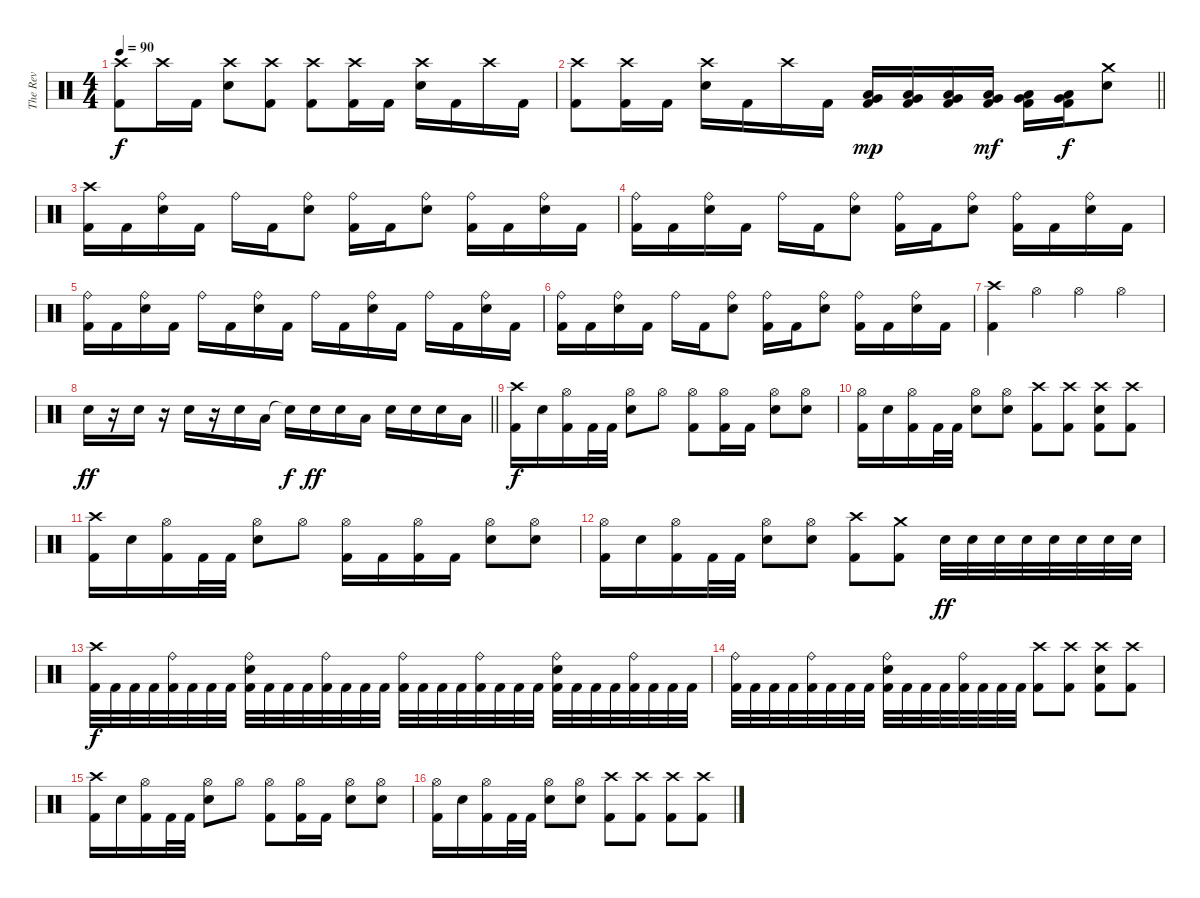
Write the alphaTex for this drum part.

\track ("The Rev" "The Rev") {instrument percussion}
\staff {score}
\articulation defaults
\ts (4 4)
\tempo 90
\clef neutral
\ks c
("Crash high (hit)" "Kick (hit) 2").8{dy f} "Crash high (hit)".16 "Kick (hit) 2".16 ("Crash high (hit)" "Electric Snare (hit)").8 ("Crash high (hit)" "Kick (hit) 2").8 ("Crash high (hit)" "Kick (hit) 2").8 ("Crash high (hit)" "Kick (hit) 2").16 "Kick (hit) 2".16 ("Crash high (hit)" "Electric Snare (hit)").16 "Kick (hit) 2".16 "Crash high (hit)".16 "Kick (hit) 2".16 |
\barLineRight lightlight
("Crash high (hit)" "Kick (hit) 2").8 ("Crash high (hit)" "Kick (hit) 2").16 "Kick (hit) 2".16 ("Crash high (hit)" "Electric Snare (hit)").16 "Kick (hit) 2".16 "Crash high (hit)".16 "Kick (hit) 2".16 ("Very Low Tom (hit)" "Low Floor Tom (hit)" "Kick (hit) 2").16{dy mp} ("Very Low Tom (hit)" "Low Floor Tom (hit)" "Kick (hit) 2").16 ("Very Low Tom (hit)" "Low Floor Tom (hit)" "Kick (hit) 2").16 ("Very Low Tom (hit)" "Low Floor Tom (hit)" "Kick (hit) 2").16{dy mf} ("Very Low Tom (hit)" "Low Floor Tom (hit)" "Kick (hit) 2").16 ("Very Low Tom (hit)" "Low Floor Tom (hit)" "Kick (hit) 2").16{dy f} ("Crash medium (hit)" "Electric Snare (hit)").8 |
("Crash high (hit)" "Kick (hit) 2").16 "Kick (hit) 2".16 ("Ride (bell)" "Electric Snare (hit)").16 "Kick (hit) 2".16 "Ride (bell)".16 "Kick (hit) 2".16 ("Ride (bell)" "Electric Snare (hit)").8 ("Ride (bell)" "Kick (hit) 2").16 "Kick (hit) 2".16 ("Ride (bell)" "Electric Snare (hit)").8 ("Ride (bell)" "Kick (hit) 2").16 "Kick (hit) 2".16 ("Ride (bell)" "Electric Snare (hit)").16 "Kick (hit) 2".16 |
("Ride (bell)" "Kick (hit) 2").16 "Kick (hit) 2".16 ("Ride (bell)" "Electric Snare (hit)").16 "Kick (hit) 2".16 "Ride (bell)".16 "Kick (hit) 2".16 ("Ride (bell)" "Electric Snare (hit)").8 ("Ride (bell)" "Kick (hit) 2").16 "Kick (hit) 2".16 ("Ride (bell)" "Electric Snare (hit)").8 ("Ride (bell)" "Kick (hit) 2").16 "Kick (hit) 2".16 ("Ride (bell)" "Electric Snare (hit)").16 "Kick (hit) 2".16 |
("Ride (bell)" "Kick (hit) 2").16 "Kick (hit) 2".16 ("Ride (bell)" "Electric Snare (hit)").16 "Kick (hit) 2".16 "Ride (bell)".16 "Kick (hit) 2".16 ("Ride (bell)" "Electric Snare (hit)").16 "Kick (hit) 2".16 "Ride (bell)".16 "Kick (hit) 2".16 ("Ride (bell)" "Electric Snare (hit)").16 "Kick (hit) 2".16 "Ride (bell)".16 "Kick (hit) 2".16 ("Ride (bell)" "Electric Snare (hit)").16 "Kick (hit) 2".16 |
("Ride (bell)" "Kick (hit) 2").16 "Kick (hit) 2".16 ("Ride (bell)" "Electric Snare (hit)").16 "Kick (hit) 2".16 "Ride (bell)".16 "Kick (hit) 2".16 ("Ride (bell)" "Electric Snare (hit)").8 ("Ride (bell)" "Kick (hit) 2").16 "Kick (hit) 2".16 ("Ride (bell)" "Electric Snare (hit)").8 ("Ride (bell)" "Kick (hit) 2").16 "Kick (hit) 2".16 ("Ride (bell)" "Electric Snare (hit)").16 "Kick (hit) 2".16 |
("Crash high (hit)" "Kick (hit) 2").4 "Hi-Hat (open)".4 "Hi-Hat (open)".4 "Hi-Hat (open)".4 |
\barLineRight lightlight "Electric Snare (hit)".16{dy ff}
r.16 "Electric Snare (hit)".16 r.16 "Electric Snare (hit)".16 r.16 "Electric Snare (hit)".16 "Low Tom (hit)".16 "Snare (hit)"{t}.16{dy f} "Electric Snare (hit)".16{dy ff} "Electric Snare (hit)".16 "Low Tom (hit)".16 "Electric Snare (hit)".16 "Electric Snare (hit)".16 "Electric Snare (hit)".16 "Low Tom (hit)".16 |
("Crash high (hit)" "Kick (hit) 2").16{dy f} "Electric Snare (hit)".16 ("Hi-Hat (open)" "Kick (hit) 2").16 "Kick (hit) 2".32 "Kick (hit) 2".32 ("Hi-Hat (open)" "Electric Snare (hit)").8 "Hi-Hat (open)".8 ("Hi-Hat (open)" "Kick (hit) 2").8 ("Hi-Hat (open)" "Kick (hit) 2").16 "Kick (hit) 2".16 ("Hi-Hat (open)" "Electric Snare (hit)").8 ("Hi-Hat (open)" "Electric Snare (hit)").8 |
("Hi-Hat (open)" "Kick (hit) 2").16 "Electric Snare (hit)".16 ("Hi-Hat (open)" "Kick (hit) 2").16 "Kick (hit) 2".32 "Kick (hit) 2".32 ("Hi-Hat (open)" "Electric Snare (hit)").8 ("Hi-Hat (open)" "Electric Snare (hit)").8 ("Crash high (hit)" "Kick (hit) 2").8 ("Crash high (hit)" "Kick (hit) 2").8 ("Crash high (hit)" "Electric Snare (hit)" "Kick (hit) 2").8 ("Crash high (hit)" "Kick (hit) 2").8 |
("Crash high (hit)" "Kick (hit) 2").16 "Electric Snare (hit)".16 ("Hi-Hat (open)" "Kick (hit) 2").16 "Kick (hit) 2".32 "Kick (hit) 2".32 ("Hi-Hat (open)" "Electric Snare (hit)").8 "Hi-Hat (open)".8 ("Hi-Hat (open)" "Kick (hit) 2").16 "Kick (hit) 2".16 ("Hi-Hat (open)" "Kick (hit) 2").16 "Kick (hit) 2".16 ("Hi-Hat (open)" "Electric Snare (hit)").8 ("Hi-Hat (open)" "Electric Snare (hit)").8 |
("Hi-Hat (open)" "Kick (hit) 2").16 "Electric Snare (hit)".16 ("Hi-Hat (open)" "Kick (hit) 2").16 "Kick (hit) 2".32 "Kick (hit) 2".32 ("Hi-Hat (open)" "Electric Snare (hit)").8 ("Hi-Hat (open)" "Electric Snare (hit)").8 ("Crash high (hit)" "Kick (hit) 2").8 ("Crash medium (hit)" "Kick (hit) 2").8 "Electric Snare (hit)".32{dy ff} "Electric Snare (hit)".32 "Electric Snare (hit)".32 "Electric Snare (hit)".32 "Electric Snare (hit)".32 "Electric Snare (hit)".32 "Electric Snare (hit)".32 "Electric Snare (hit)".32 |
("Crash high (hit)" "Kick (hit) 2").32{dy f} "Kick (hit) 2".32 "Kick (hit) 2".32 "Kick (hit) 2".32 ("Ride (bell)" "Kick (hit) 2").32 "Kick (hit) 2".32 "Kick (hit) 2".32 "Kick (hit) 2".32 ("Ride (bell)" "Electric Snare (hit)" "Kick (hit) 2").32 "Kick (hit) 2".32 "Kick (hit) 2".32 "Kick (hit) 2".32 ("Ride (bell)" "Kick (hit) 2").32 "Kick (hit) 2".32 "Kick (hit) 2".32 "Kick (hit) 2".32 ("Ride (bell)" "Kick (hit) 2").32 "Kick (hit) 2".32 "Kick (hit) 2".32 "Kick (hit) 2".32 ("Ride (bell)" "Kick (hit) 2").32 "Kick (hit) 2".32 "Kick (hit) 2".32 "Kick (hit) 2".32 ("Ride (bell)" "Electric Snare (hit)" "Kick (hit) 2").32 "Kick (hit) 2".32 "Kick (hit) 2".32 "Kick (hit) 2".32 ("Ride (bell)" "Kick (hit) 2").32 "Kick (hit) 2".32 "Kick (hit) 2".32 "Kick (hit) 2".32 |
("Ride (bell)" "Kick (hit) 2").32 "Kick (hit) 2".32 "Kick (hit) 2".32 "Kick (hit) 2".32 ("Ride (bell)" "Kick (hit) 2").32 "Kick (hit) 2".32 "Kick (hit) 2".32 "Kick (hit) 2".32 ("Ride (bell)" "Electric Snare (hit)" "Kick (hit) 2").32 "Kick (hit) 2".32 "Kick (hit) 2".32 "Kick (hit) 2".32 ("Ride (bell)" "Kick (hit) 2").32 "Kick (hit) 2".32 "Kick (hit) 2".32 "Kick (hit) 2".32 ("Crash high (hit)" "Kick (hit) 2").8 ("Crash high (hit)" "Kick (hit) 2").8 ("Crash high (hit)" "Electric Snare (hit)" "Kick (hit) 2").8 ("Crash high (hit)" "Kick (hit) 2").8 |
("Crash high (hit)" "Kick (hit) 2").16 "Electric Snare (hit)".16 ("Hi-Hat (open)" "Kick (hit) 2").16 "Kick (hit) 2".32 "Kick (hit) 2".32 ("Hi-Hat (open)" "Electric Snare (hit)").8 "Hi-Hat (open)".8 ("Hi-Hat (open)" "Kick (hit) 2").8 ("Hi-Hat (open)" "Kick (hit) 2").16 "Kick (hit) 2".16 ("Hi-Hat (open)" "Electric Snare (hit)").8 ("Hi-Hat (open)" "Electric Snare (hit)").8 |
("Hi-Hat (open)" "Kick (hit) 2").16 "Electric Snare (hit)".16 ("Hi-Hat (open)" "Kick (hit) 2").16 "Kick (hit) 2".32 "Kick (hit) 2".32 ("Hi-Hat (open)" "Electric Snare (hit)").8 ("Hi-Hat (open)" "Electric Snare (hit)").8 ("Crash high (hit)" "Kick (hit) 2").8 ("Crash high (hit)" "Kick (hit) 2").8 ("Crash high (hit)" "Kick (hit) 2").8 ("Crash high (hit)" "Kick (hit) 2").8
